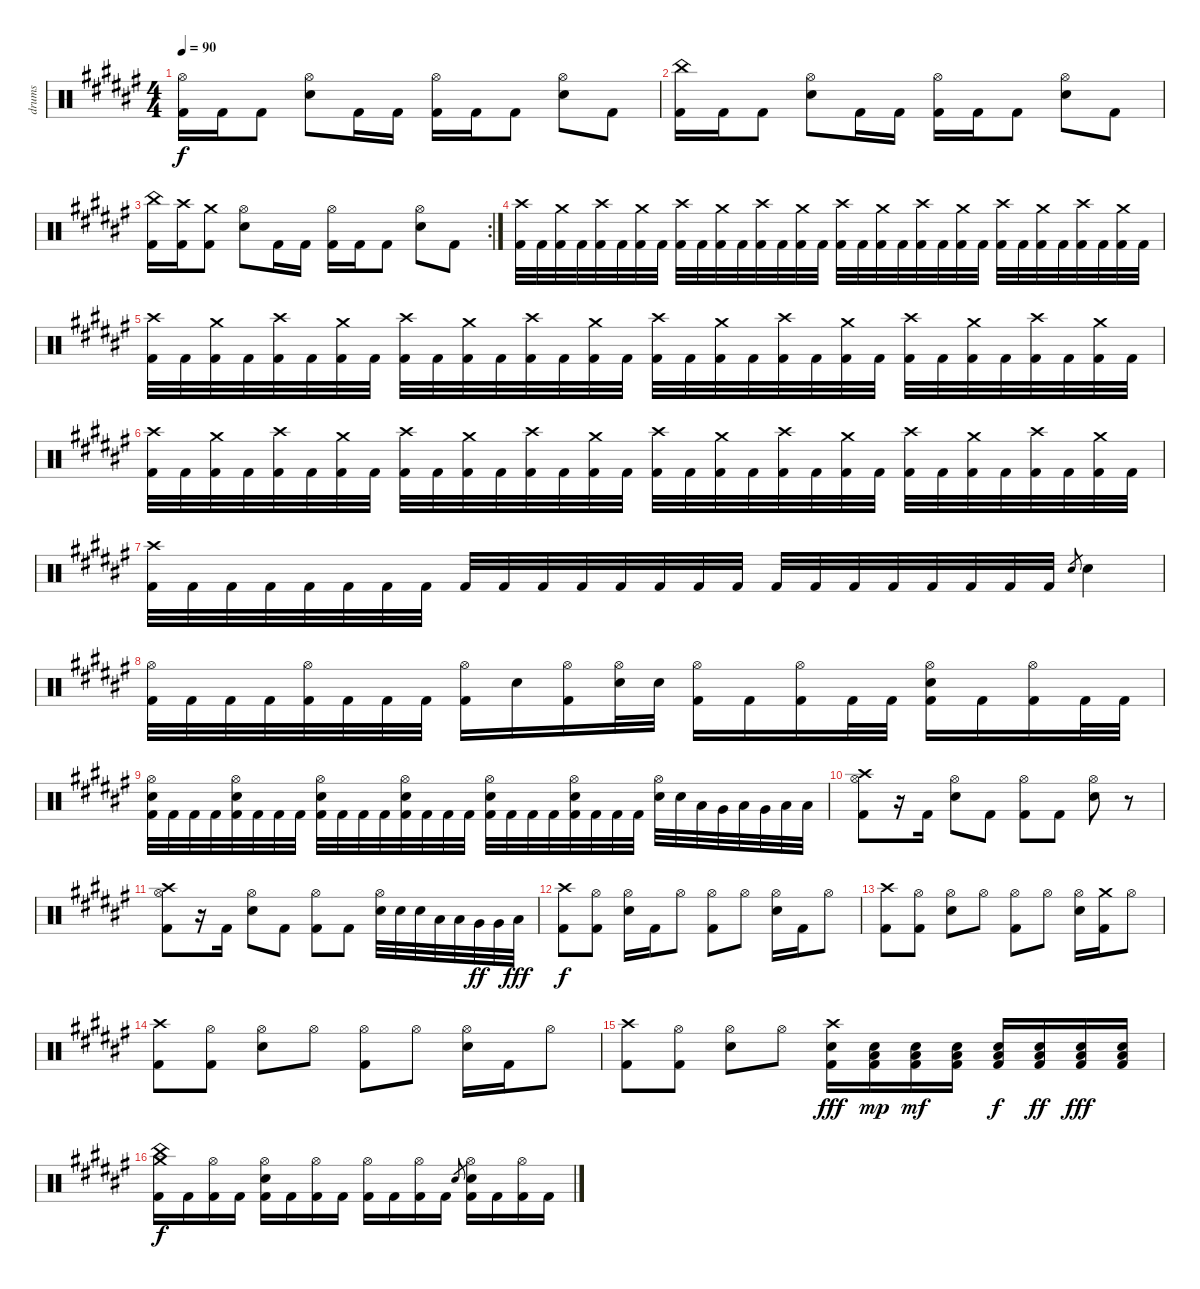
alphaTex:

\track ("drums" "drums") {instrument percussion}
\staff {score}
\articulation defaults
\ts (4 4)
\tempo 90
\clef neutral
\ks d#minor
("Hi-Hat (open)" "Kick (hit) 2").16{dy f} "Kick (hit) 2".16 "Kick (hit) 2".8 ("Hi-Hat (open)" "Electric Snare (hit)").8 "Kick (hit) 2".16 "Kick (hit) 2".16 ("Hi-Hat (open)" "Kick (hit) 2").16 "Kick (hit) 2".16 "Kick (hit) 2".8 ("Hi-Hat (open)" "Electric Snare (hit)").8 "Kick (hit) 2".8 |
("China (hit)" "Kick (hit) 2").16 "Kick (hit) 2".16 "Kick (hit) 2".8 ("Hi-Hat (open)" "Electric Snare (hit)").8 "Kick (hit) 2".16 "Kick (hit) 2".16 ("Hi-Hat (open)" "Kick (hit) 2").16 "Kick (hit) 2".16 "Kick (hit) 2".8 ("Hi-Hat (open)" "Electric Snare (hit)").8 "Kick (hit) 2".8 |
\rc 2
("China (hit)" "Kick (hit) 2").16 ("Crash high (hit)" "Kick (hit) 2").16 ("Crash medium (hit)" "Kick (hit) 2").8 ("Hi-Hat (open)" "Electric Snare (hit)").8 "Kick (hit) 2".16 "Kick (hit) 2".16 ("Hi-Hat (open)" "Kick (hit) 2").16 "Kick (hit) 2".16 "Kick (hit) 2".8 ("Hi-Hat (open)" "Electric Snare (hit)").8 "Kick (hit) 2".8 |
("Crash high (hit)" "Kick (hit) 2").32 "Kick (hit) 2".32 ("Crash medium (hit)" "Kick (hit) 2").32 "Kick (hit) 2".32 ("Crash high (hit)" "Kick (hit) 2").32 "Kick (hit) 2".32 ("Crash medium (hit)" "Kick (hit) 2").32 "Kick (hit) 2".32 ("Crash high (hit)" "Kick (hit) 2").32 "Kick (hit) 2".32 ("Crash medium (hit)" "Kick (hit) 2").32 "Kick (hit) 2".32 ("Crash high (hit)" "Kick (hit) 2").32 "Kick (hit) 2".32 ("Crash medium (hit)" "Kick (hit) 2").32 "Kick (hit) 2".32 ("Crash high (hit)" "Kick (hit) 2").32 "Kick (hit) 2".32 ("Crash medium (hit)" "Kick (hit) 2").32 "Kick (hit) 2".32 ("Crash high (hit)" "Kick (hit) 2").32 "Kick (hit) 2".32 ("Crash medium (hit)" "Kick (hit) 2").32 "Kick (hit) 2".32 ("Crash high (hit)" "Kick (hit) 2").32 "Kick (hit) 2".32 ("Crash medium (hit)" "Kick (hit) 2").32 "Kick (hit) 2".32 ("Crash high (hit)" "Kick (hit) 2").32 "Kick (hit) 2".32 ("Crash medium (hit)" "Kick (hit) 2").32 "Kick (hit) 2".32 |
("Crash high (hit)" "Kick (hit) 2").32 "Kick (hit) 2".32 ("Crash medium (hit)" "Kick (hit) 2").32 "Kick (hit) 2".32 ("Crash high (hit)" "Kick (hit) 2").32 "Kick (hit) 2".32 ("Crash medium (hit)" "Kick (hit) 2").32 "Kick (hit) 2".32 ("Crash high (hit)" "Kick (hit) 2").32 "Kick (hit) 2".32 ("Crash medium (hit)" "Kick (hit) 2").32 "Kick (hit) 2".32 ("Crash high (hit)" "Kick (hit) 2").32 "Kick (hit) 2".32 ("Crash medium (hit)" "Kick (hit) 2").32 "Kick (hit) 2".32 ("Crash high (hit)" "Kick (hit) 2").32 "Kick (hit) 2".32 ("Crash medium (hit)" "Kick (hit) 2").32 "Kick (hit) 2".32 ("Crash high (hit)" "Kick (hit) 2").32 "Kick (hit) 2".32 ("Crash medium (hit)" "Kick (hit) 2").32 "Kick (hit) 2".32 ("Crash high (hit)" "Kick (hit) 2").32 "Kick (hit) 2".32 ("Crash medium (hit)" "Kick (hit) 2").32 "Kick (hit) 2".32 ("Crash high (hit)" "Kick (hit) 2").32 "Kick (hit) 2".32 ("Crash medium (hit)" "Kick (hit) 2").32 "Kick (hit) 2".32 |
("Crash high (hit)" "Kick (hit) 2").32 "Kick (hit) 2".32 ("Crash medium (hit)" "Kick (hit) 2").32 "Kick (hit) 2".32 ("Crash high (hit)" "Kick (hit) 2").32 "Kick (hit) 2".32 ("Crash medium (hit)" "Kick (hit) 2").32 "Kick (hit) 2".32 ("Crash high (hit)" "Kick (hit) 2").32 "Kick (hit) 2".32 ("Crash medium (hit)" "Kick (hit) 2").32 "Kick (hit) 2".32 ("Crash high (hit)" "Kick (hit) 2").32 "Kick (hit) 2".32 ("Crash medium (hit)" "Kick (hit) 2").32 "Kick (hit) 2".32 ("Crash high (hit)" "Kick (hit) 2").32 "Kick (hit) 2".32 ("Crash medium (hit)" "Kick (hit) 2").32 "Kick (hit) 2".32 ("Crash high (hit)" "Kick (hit) 2").32 "Kick (hit) 2".32 ("Crash medium (hit)" "Kick (hit) 2").32 "Kick (hit) 2".32 ("Crash high (hit)" "Kick (hit) 2").32 "Kick (hit) 2".32 ("Crash medium (hit)" "Kick (hit) 2").32 "Kick (hit) 2".32 ("Crash high (hit)" "Kick (hit) 2").32 "Kick (hit) 2".32 ("Crash medium (hit)" "Kick (hit) 2").32 "Kick (hit) 2".32 |
("Crash high (hit)" "Kick (hit) 2").32 "Kick (hit) 2".32 "Kick (hit) 2".32 "Kick (hit) 2".32 "Kick (hit) 2".32 "Kick (hit) 2".32 "Kick (hit) 2".32 "Kick (hit) 2".32 "Kick (hit) 2".32 "Kick (hit) 2".32 "Kick (hit) 2".32 "Kick (hit) 2".32 "Kick (hit) 2".32 "Kick (hit) 2".32 "Kick (hit) 2".32 "Kick (hit) 2".32 "Kick (hit) 2".32 "Kick (hit) 2".32 "Kick (hit) 2".32 "Kick (hit) 2".32 "Kick (hit) 2".32 "Kick (hit) 2".32 "Kick (hit) 2".32 "Kick (hit) 2".32 "Electric Snare (hit)".8{gr} "Electric Snare (hit)".4 |
("Hi-Hat (open)" "Kick (hit) 2").32 "Kick (hit) 2".32 "Kick (hit) 2".32 "Kick (hit) 2".32 ("Hi-Hat (open)" "Kick (hit) 2").32 "Kick (hit) 2".32 "Kick (hit) 2".32 "Kick (hit) 2".32 ("Hi-Hat (open)" "Kick (hit) 2").16 "Electric Snare (hit)".16 ("Hi-Hat (open)" "Kick (hit) 2").16 ("Hi-Hat (open)" "Electric Snare (hit)").32 "Electric Snare (hit)".32 ("Hi-Hat (open)" "Kick (hit) 2").16 "Kick (hit) 2".16 ("Hi-Hat (open)" "Kick (hit) 2").16 "Kick (hit) 2".32 "Kick (hit) 2".32 ("Hi-Hat (open)" "Electric Snare (hit)" "Kick (hit) 2").16 "Kick (hit) 2".16 ("Hi-Hat (open)" "Kick (hit) 2").16 "Kick (hit) 2".32 "Kick (hit) 2".32 |
("Hi-Hat (open)" "Electric Snare (hit)" "Kick (hit) 2").32 "Kick (hit) 2".32 "Kick (hit) 2".32 "Kick (hit) 2".32 ("Hi-Hat (open)" "Electric Snare (hit)" "Kick (hit) 2").32 "Kick (hit) 2".32 "Kick (hit) 2".32 "Kick (hit) 2".32 ("Hi-Hat (open)" "Electric Snare (hit)" "Kick (hit) 2").32 "Kick (hit) 2".32 "Kick (hit) 2".32 "Kick (hit) 2".32 ("Hi-Hat (open)" "Electric Snare (hit)" "Kick (hit) 2").32 "Kick (hit) 2".32 "Kick (hit) 2".32 "Kick (hit) 2".32 ("Hi-Hat (open)" "Electric Snare (hit)" "Kick (hit) 2").32 "Kick (hit) 2".32 "Kick (hit) 2".32 "Kick (hit) 2".32 ("Hi-Hat (open)" "Electric Snare (hit)" "Kick (hit) 2").32 "Kick (hit) 2".32 "Kick (hit) 2".32 "Kick (hit) 2".32 ("Hi-Hat (open)" "Electric Snare (hit)").32 "Electric Snare (hit)".32 "Low Tom (hit)".32 "Very Low Tom (hit)".32 "Low Tom (hit)".32 "Very Low Tom (hit)".32 "Low Floor Tom (hit)".32 "Low Floor Tom (hit)".32 |
("Crash high (hit)" "Hi-Hat (open)" "Kick (hit) 2").8 r.16 "Kick (hit) 2".16 ("Hi-Hat (open)" "Electric Snare (hit)").8 "Kick (hit) 2".8 ("Hi-Hat (open)" "Kick (hit) 2").8 "Kick (hit) 2".8 ("Hi-Hat (open)" "Electric Snare (hit)").8 r.8 |
("Crash high (hit)" "Hi-Hat (open)" "Kick (hit) 2").8 r.16 "Kick (hit) 2".16 ("Hi-Hat (open)" "Electric Snare (hit)").8 "Kick (hit) 2".8 ("Hi-Hat (open)" "Kick (hit) 2").8 "Kick (hit) 2".8 ("Hi-Hat (open)" "Electric Snare (hit)").32 "Electric Snare (hit)".32 "Electric Snare (hit)".32 "Low Tom (hit)".32 "Low Tom (hit)".32 "Very Low Tom (hit)".32{dy ff} "Very Low Tom (hit)".32 "Low Floor Tom (hit)".32{dy fff} |
("Crash high (hit)" "Kick (hit) 2").8{dy f} ("Hi-Hat (open)" "Kick (hit) 2").8 ("Hi-Hat (open)" "Electric Snare (hit)").16 "Kick (hit) 2".16 "Hi-Hat (open)".8 ("Hi-Hat (open)" "Kick (hit) 2").8 "Hi-Hat (open)".8 ("Hi-Hat (open)" "Electric Snare (hit)").16 "Kick (hit) 2".16 "Hi-Hat (open)".8 |
("Crash high (hit)" "Kick (hit) 2").8 ("Hi-Hat (open)" "Kick (hit) 2").8 ("Hi-Hat (open)" "Electric Snare (hit)").8 "Hi-Hat (open)".8 ("Hi-Hat (open)" "Kick (hit) 2").8 "Hi-Hat (open)".8 ("Hi-Hat (open)" "Electric Snare (hit)").16 ("Crash medium (hit)" "Kick (hit) 2").16 "Hi-Hat (open)".8 |
("Crash high (hit)" "Kick (hit) 2").8 ("Hi-Hat (open)" "Kick (hit) 2").8 ("Hi-Hat (open)" "Electric Snare (hit)").8 "Hi-Hat (open)".8 ("Hi-Hat (open)" "Kick (hit) 2").8 "Hi-Hat (open)".8 ("Hi-Hat (open)" "Electric Snare (hit)").16 "Kick (hit) 2".16 "Hi-Hat (open)".8 |
("Crash high (hit)" "Kick (hit) 2").8 ("Hi-Hat (open)" "Kick (hit) 2").8 ("Hi-Hat (open)" "Electric Snare (hit)").8 "Hi-Hat (open)".8 ("Crash high (hit)" "Electric Snare (hit)" "Kick (hit) 2").16{dy fff} ("Low Floor Tom (hit)" "Electric Snare (hit)" "Kick (hit) 2").16{dy mp} ("Low Floor Tom (hit)" "Electric Snare (hit)" "Kick (hit) 2").16{dy mf} ("Low Floor Tom (hit)" "Electric Snare (hit)" "Kick (hit) 2").16 ("Low Floor Tom (hit)" "Electric Snare (hit)" "Kick (hit) 2").16{dy f} ("Low Floor Tom (hit)" "Electric Snare (hit)" "Kick (hit) 2").16{dy ff} ("Low Floor Tom (hit)" "Electric Snare (hit)" "Kick (hit) 2").16{dy fff} ("Low Floor Tom (hit)" "Electric Snare (hit)" "Kick (hit) 2").16 |
("Crash medium (hit)" "China (hit)" "Kick (hit) 2").16{dy f} "Kick (hit) 2".16 ("Hi-Hat (open)" "Kick (hit) 2").16 "Kick (hit) 2".16 ("Hi-Hat (open)" "Electric Snare (hit)" "Kick (hit) 2").16 "Kick (hit) 2".16 ("Hi-Hat (open)" "Kick (hit) 2").16 "Kick (hit) 2".16 ("Hi-Hat (open)" "Kick (hit) 2").16 "Kick (hit) 2".16 ("Hi-Hat (open)" "Kick (hit) 2").16 "Kick (hit) 2".16 "Electric Snare (hit)".8{gr} ("Hi-Hat (open)" "Electric Snare (hit)" "Kick (hit) 2").16 "Kick (hit) 2".16 ("Hi-Hat (open)" "Kick (hit) 2").16 "Kick (hit) 2".16
